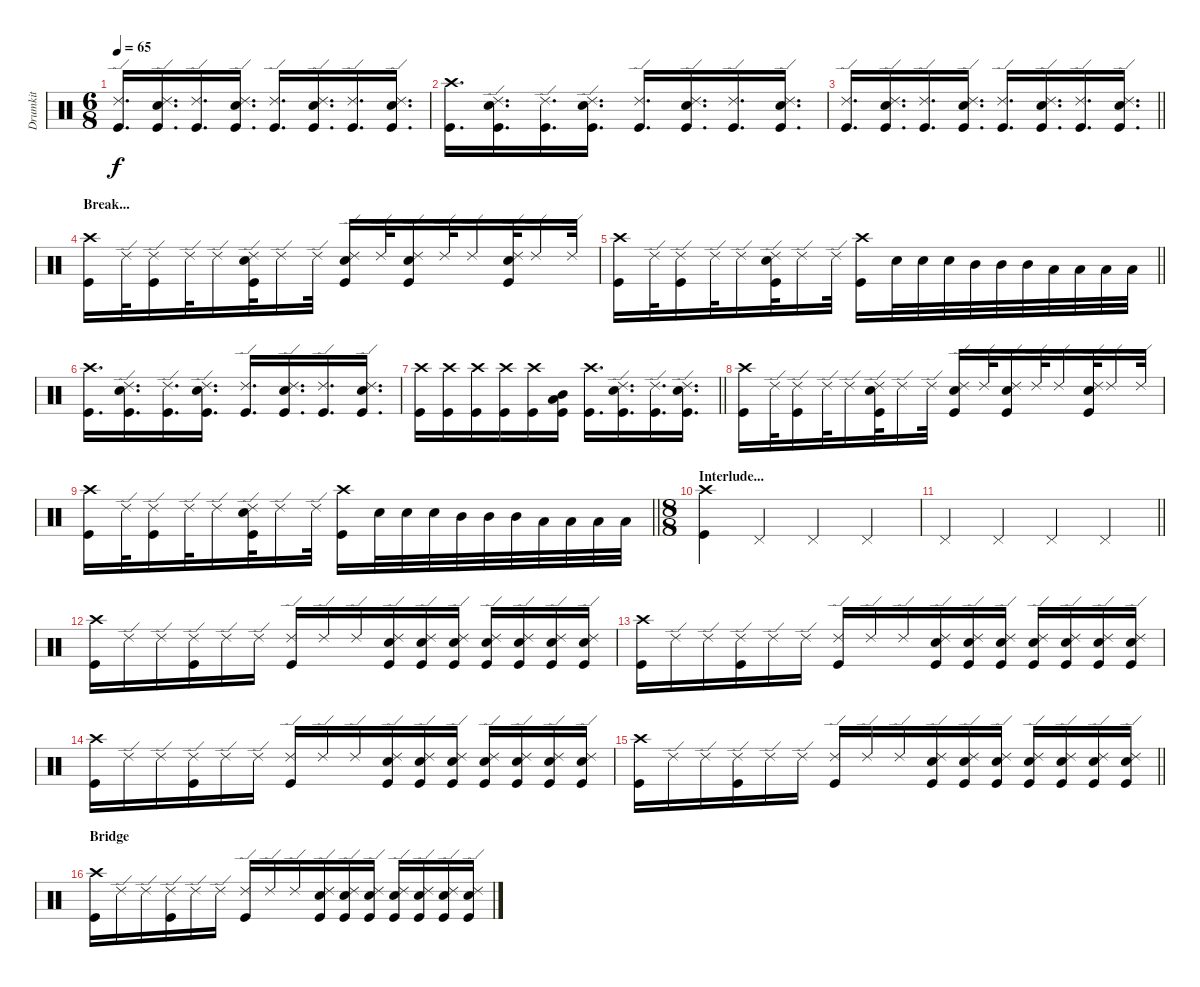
\track ("Drumkit" "Drumkit") {instrument percussion}
\staff {score}
\articulation defaults
\ts (6 8)
\tempo 65
\clef neutral
\ks c
("Kick (hit)" "Ride (edge) 2").16{d dy f} ("Kick (hit)" "Snare (hit) 2" "Ride (edge) 2").16{d} ("Kick (hit)" "Ride (edge) 2").16{d} ("Kick (hit)" "Snare (hit) 2" "Ride (edge) 2").16{d} ("Kick (hit)" "Ride (edge) 2").16{d} ("Kick (hit)" "Snare (hit) 2" "Ride (edge) 2").16{d} ("Kick (hit)" "Ride (edge) 2").16{d} ("Kick (hit)" "Snare (hit) 2" "Ride (edge) 2").16{d} |
("Kick (hit)" "Crash high (hit)").16{d} ("Kick (hit)" "Snare (hit) 2" "Ride (edge) 2").16{d} ("Kick (hit)" "Ride (edge) 2").16{d} ("Kick (hit)" "Snare (hit) 2" "Ride (edge) 2").16{d} ("Kick (hit)" "Ride (edge) 2").16{d} ("Kick (hit)" "Snare (hit) 2" "Ride (edge) 2").16{d} ("Kick (hit)" "Ride (edge) 2").16{d} ("Kick (hit)" "Snare (hit) 2" "Ride (edge) 2").16{d} |
\barLineRight lightlight
("Kick (hit)" "Ride (edge) 2").16{d} ("Kick (hit)" "Snare (hit) 2" "Ride (edge) 2").16{d} ("Kick (hit)" "Ride (edge) 2").16{d} ("Kick (hit)" "Snare (hit) 2" "Ride (edge) 2").16{d} ("Kick (hit)" "Ride (edge) 2").16{d} ("Kick (hit)" "Snare (hit) 2" "Ride (edge) 2").16{d} ("Kick (hit)" "Ride (edge) 2").16{d} ("Kick (hit)" "Snare (hit) 2" "Ride (edge) 2").16{d} |
\section ("" "Break...")
("Kick (hit)" "Crash high (hit)").16 "Ride (edge) 2".32 ("Kick (hit)" "Ride (edge) 2").16 "Ride (edge) 2".32 "Ride (edge) 2".16 ("Kick (hit)" "Snare (hit) 2" "Ride (edge) 2").32 "Ride (edge) 2".16 "Ride (edge) 2".32 ("Kick (hit)" "Snare (hit) 2" "Ride (edge) 2").16 "Ride (edge) 2".32 ("Kick (hit)" "Snare (hit) 2" "Ride (edge) 2").16 "Ride (edge) 2".32 "Ride (edge) 2".16 ("Kick (hit)" "Snare (hit) 2" "Ride (edge) 2").32 "Ride (edge) 2".16 "Ride (edge) 2".32 |
\barLineRight lightlight
("Kick (hit)" "Crash high (hit)").16 "Ride (edge) 2".32 ("Kick (hit)" "Ride (edge) 2").16 "Ride (edge) 2".32 "Ride (edge) 2".16 ("Kick (hit)" "Snare (hit) 2" "Ride (edge) 2").32 "Ride (edge) 2".16 "Ride (edge) 2".32 ("Kick (hit)" "Crash high (hit)").16 "Snare (hit) 2".32 "Snare (hit) 2".32 "Snare (hit) 2".32 "Mid Tom (hit)".32 "Mid Tom (hit)".32 "Mid Tom (hit)".32 "Low Tom (hit)".32 "Low Tom (hit)".32 "Low Tom (hit)".32 "Low Tom (hit)".32 |
("Kick (hit)" "Crash high (hit)").16{d} ("Kick (hit)" "Snare (hit) 2" "Ride (edge) 2").16{d} ("Kick (hit)" "Ride (edge) 2").16{d} ("Kick (hit)" "Snare (hit) 2" "Ride (edge) 2").16{d} ("Kick (hit)" "Ride (edge) 2").16{d} ("Kick (hit)" "Snare (hit) 2" "Ride (edge) 2").16{d} ("Kick (hit)" "Ride (edge) 2").16{d} ("Kick (hit)" "Snare (hit) 2" "Ride (edge) 2").16{d} |
\barLineRight lightlight
("Kick (hit)" "Crash high (hit)").16 ("Kick (hit)" "Crash high (hit)").16 ("Kick (hit)" "Crash high (hit)").16 ("Kick (hit)" "Crash high (hit)").16 ("Kick (hit)" "Crash high (hit)").16 ("Kick (hit)" "Mid Tom (hit)" "Low Floor Tom (hit)").16 ("Kick (hit)" "Crash high (hit)").16{d} ("Kick (hit)" "Snare (hit) 2" "Ride (edge) 2").16{d} ("Kick (hit)" "Ride (edge) 2").16{d} ("Kick (hit)" "Snare (hit) 2" "Ride (edge) 2").16{d} |
("Kick (hit)" "Crash high (hit)").16 "Ride (edge) 2".32 ("Kick (hit)" "Ride (edge) 2").16 "Ride (edge) 2".32 "Ride (edge) 2".16 ("Kick (hit)" "Snare (hit) 2" "Ride (edge) 2").32 "Ride (edge) 2".16 "Ride (edge) 2".32 ("Kick (hit)" "Snare (hit) 2" "Ride (edge) 2").16 "Ride (edge) 2".32 ("Kick (hit)" "Snare (hit) 2" "Ride (edge) 2").16 "Ride (edge) 2".32 "Ride (edge) 2".16 ("Kick (hit)" "Snare (hit) 2" "Ride (edge) 2").32 "Ride (edge) 2".16 "Ride (edge) 2".32 |
\barLineRight lightlight
("Kick (hit)" "Crash high (hit)").16 "Ride (edge) 2".32 ("Kick (hit)" "Ride (edge) 2").16 "Ride (edge) 2".32 "Ride (edge) 2".16 ("Kick (hit)" "Snare (hit) 2" "Ride (edge) 2").32 "Ride (edge) 2".16 "Ride (edge) 2".32 ("Kick (hit)" "Crash high (hit)").16 "Snare (hit) 2".32 "Snare (hit) 2".32 "Snare (hit) 2".32 "Mid Tom (hit)".32 "Mid Tom (hit)".32 "Mid Tom (hit)".32 "Low Tom (hit)".32 "Low Tom (hit)".32 "Low Tom (hit)".32 "Low Tom (hit)".32 |
\ts (8 8)
\section ("" "Interlude...")
("Kick (hit)" "Crash high (hit)").4 "Pedal Hi-Hat (hit)".4 "Pedal Hi-Hat (hit)".4 "Pedal Hi-Hat (hit)".4 |
\barLineRight lightlight "Pedal Hi-Hat (hit)".4 "Pedal Hi-Hat (hit)".4 "Pedal Hi-Hat (hit)".4 "Pedal Hi-Hat (hit)".4
|
("Kick (hit)" "Crash high (hit)").16 "Ride (edge) 2".16 "Ride (edge) 2".16 ("Kick (hit)" "Ride (edge) 2").16 "Ride (edge) 2".16 "Ride (edge) 2".16 ("Kick (hit)" "Ride (edge) 2").16 "Ride (edge) 2".16 "Ride (edge) 2".16 ("Kick (hit)" "Snare (hit) 2" "Ride (edge) 2").16 ("Kick (hit)" "Snare (hit) 2" "Ride (edge) 2").16 ("Kick (hit)" "Snare (hit) 2" "Ride (edge) 2").16 ("Kick (hit)" "Snare (hit) 2" "Ride (edge) 2").16 ("Kick (hit)" "Snare (hit) 2" "Ride (edge) 2").16 ("Kick (hit)" "Snare (hit) 2" "Ride (edge) 2").16 ("Kick (hit)" "Snare (hit) 2" "Ride (edge) 2").16 |
("Kick (hit)" "Crash high (hit)").16 "Ride (edge) 2".16 "Ride (edge) 2".16 ("Kick (hit)" "Ride (edge) 2").16 "Ride (edge) 2".16 "Ride (edge) 2".16 ("Kick (hit)" "Ride (edge) 2").16 "Ride (edge) 2".16 "Ride (edge) 2".16 ("Kick (hit)" "Snare (hit) 2" "Ride (edge) 2").16 ("Kick (hit)" "Snare (hit) 2" "Ride (edge) 2").16 ("Kick (hit)" "Snare (hit) 2" "Ride (edge) 2").16 ("Kick (hit)" "Snare (hit) 2" "Ride (edge) 2").16 ("Kick (hit)" "Snare (hit) 2" "Ride (edge) 2").16 ("Kick (hit)" "Snare (hit) 2" "Ride (edge) 2").16 ("Kick (hit)" "Snare (hit) 2" "Ride (edge) 2").16 |
("Kick (hit)" "Crash high (hit)").16 "Ride (edge) 2".16 "Ride (edge) 2".16 ("Kick (hit)" "Ride (edge) 2").16 "Ride (edge) 2".16 "Ride (edge) 2".16 ("Kick (hit)" "Ride (edge) 2").16 "Ride (edge) 2".16 "Ride (edge) 2".16 ("Kick (hit)" "Snare (hit) 2" "Ride (edge) 2").16 ("Kick (hit)" "Snare (hit) 2" "Ride (edge) 2").16 ("Kick (hit)" "Snare (hit) 2" "Ride (edge) 2").16 ("Kick (hit)" "Snare (hit) 2" "Ride (edge) 2").16 ("Kick (hit)" "Snare (hit) 2" "Ride (edge) 2").16 ("Kick (hit)" "Snare (hit) 2" "Ride (edge) 2").16 ("Kick (hit)" "Snare (hit) 2" "Ride (edge) 2").16 |
\barLineRight lightlight
("Kick (hit)" "Crash high (hit)").16 "Ride (edge) 2".16 "Ride (edge) 2".16 ("Kick (hit)" "Ride (edge) 2").16 "Ride (edge) 2".16 "Ride (edge) 2".16 ("Kick (hit)" "Ride (edge) 2").16 "Ride (edge) 2".16 "Ride (edge) 2".16 ("Kick (hit)" "Snare (hit) 2" "Ride (edge) 2").16 ("Kick (hit)" "Snare (hit) 2" "Ride (edge) 2").16 ("Kick (hit)" "Snare (hit) 2" "Ride (edge) 2").16 ("Kick (hit)" "Snare (hit) 2" "Ride (edge) 2").16 ("Kick (hit)" "Snare (hit) 2" "Ride (edge) 2").16 ("Kick (hit)" "Snare (hit) 2" "Ride (edge) 2").16 ("Kick (hit)" "Snare (hit) 2" "Ride (edge) 2").16 |
\section ("" "Bridge")
("Kick (hit)" "Crash high (hit)").16 "Ride (edge) 2".16 "Ride (edge) 2".16 ("Kick (hit)" "Ride (edge) 2").16 "Ride (edge) 2".16 "Ride (edge) 2".16 ("Kick (hit)" "Ride (edge) 2").16 "Ride (edge) 2".16 "Ride (edge) 2".16 ("Kick (hit)" "Snare (hit) 2" "Ride (edge) 2").16 ("Kick (hit)" "Snare (hit) 2" "Ride (edge) 2").16 ("Kick (hit)" "Snare (hit) 2" "Ride (edge) 2").16 ("Kick (hit)" "Snare (hit) 2" "Ride (edge) 2").16 ("Kick (hit)" "Snare (hit) 2" "Ride (edge) 2").16 ("Kick (hit)" "Snare (hit) 2" "Ride (edge) 2").16 ("Kick (hit)" "Snare (hit) 2" "Ride (edge) 2").16
